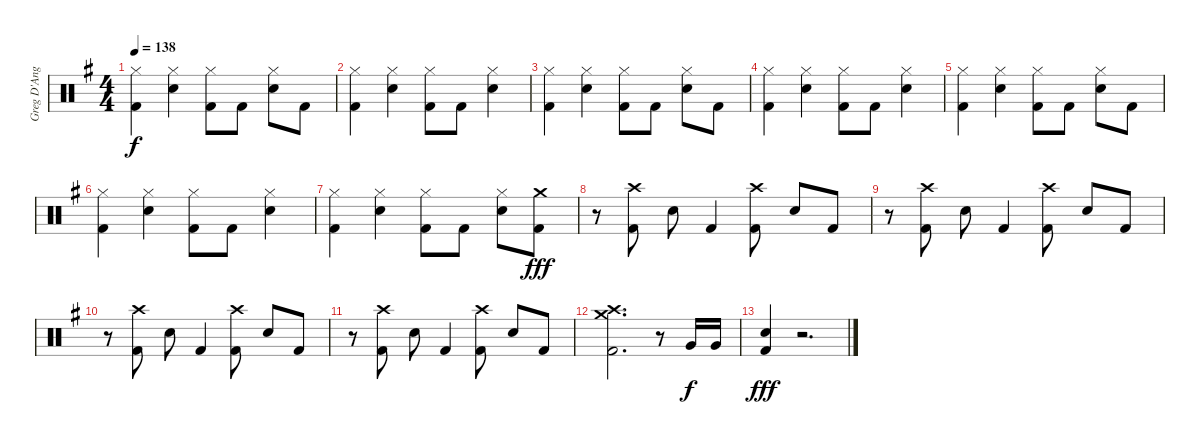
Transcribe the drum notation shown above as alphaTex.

\track ("Greg D'Angelo" "Greg D'Ang") {instrument percussion}
\staff {score}
\articulation defaults
\ts (4 4)
\tempo 138
\clef neutral
\ks g
("Hi-Hat (closed)" "Kick (hit) 2").4{dy f} ("Hi-Hat (closed)" "Snare (hit) 2").4 ("Hi-Hat (closed)" "Kick (hit) 2").8 "Kick (hit) 2".8 ("Hi-Hat (closed)" "Snare (hit) 2").8 "Kick (hit) 2".8 |
("Hi-Hat (closed)" "Kick (hit) 2").4 ("Hi-Hat (closed)" "Snare (hit) 2").4 ("Hi-Hat (closed)" "Kick (hit) 2").8 "Kick (hit) 2".8 ("Hi-Hat (closed)" "Snare (hit) 2").4 |
("Hi-Hat (closed)" "Kick (hit) 2").4 ("Hi-Hat (closed)" "Snare (hit) 2").4 ("Hi-Hat (closed)" "Kick (hit) 2").8 "Kick (hit) 2".8 ("Hi-Hat (closed)" "Snare (hit) 2").8 "Kick (hit) 2".8 |
("Hi-Hat (closed)" "Kick (hit) 2").4 ("Hi-Hat (closed)" "Snare (hit) 2").4 ("Hi-Hat (closed)" "Kick (hit) 2").8 "Kick (hit) 2".8 ("Hi-Hat (closed)" "Snare (hit) 2").4 |
("Hi-Hat (closed)" "Kick (hit) 2").4 ("Hi-Hat (closed)" "Snare (hit) 2").4 ("Hi-Hat (closed)" "Kick (hit) 2").8 "Kick (hit) 2".8 ("Hi-Hat (closed)" "Snare (hit) 2").8 "Kick (hit) 2".8 |
("Hi-Hat (closed)" "Kick (hit) 2").4 ("Hi-Hat (closed)" "Snare (hit) 2").4 ("Hi-Hat (closed)" "Kick (hit) 2").8 "Kick (hit) 2".8 ("Hi-Hat (closed)" "Snare (hit) 2").4 |
("Hi-Hat (closed)" "Kick (hit) 2").4 ("Hi-Hat (closed)" "Snare (hit) 2").4 ("Hi-Hat (closed)" "Kick (hit) 2").8 "Kick (hit) 2".8 ("Hi-Hat (closed)" "Snare (hit) 2").8 ("Crash medium (hit)" "Kick (hit) 2").8{dy fff} |
r.8 ("Crash high (hit)" "Kick (hit) 2").8 "Snare (hit) 2".8 "Kick (hit) 2".4 ("Crash high (hit)" "Kick (hit) 2").8 "Snare (hit) 2".8 "Kick (hit) 2".8 |
r.8 ("Crash high (hit)" "Kick (hit) 2").8 "Snare (hit) 2".8 "Kick (hit) 2".4 ("Crash high (hit)" "Kick (hit) 2").8 "Snare (hit) 2".8 "Kick (hit) 2".8 |
r.8 ("Crash high (hit)" "Kick (hit) 2").8 "Snare (hit) 2".8 "Kick (hit) 2".4 ("Crash high (hit)" "Kick (hit) 2").8 "Snare (hit) 2".8 "Kick (hit) 2".8 |
r.8 ("Crash high (hit)" "Kick (hit) 2").8 "Snare (hit) 2".8 "Kick (hit) 2".4 ("Crash high (hit)" "Kick (hit) 2").8 "Snare (hit) 2".8 "Kick (hit) 2".8 |
("Crash medium (hit)" "Crash high (hit)" "Kick (hit) 2").2{d} r.8 "Very Low Tom (hit)".16{dy f} "Very Low Tom (hit)".16 |
("Snare (hit) 2" "Kick (hit) 2").4{dy fff} r.2{d}
